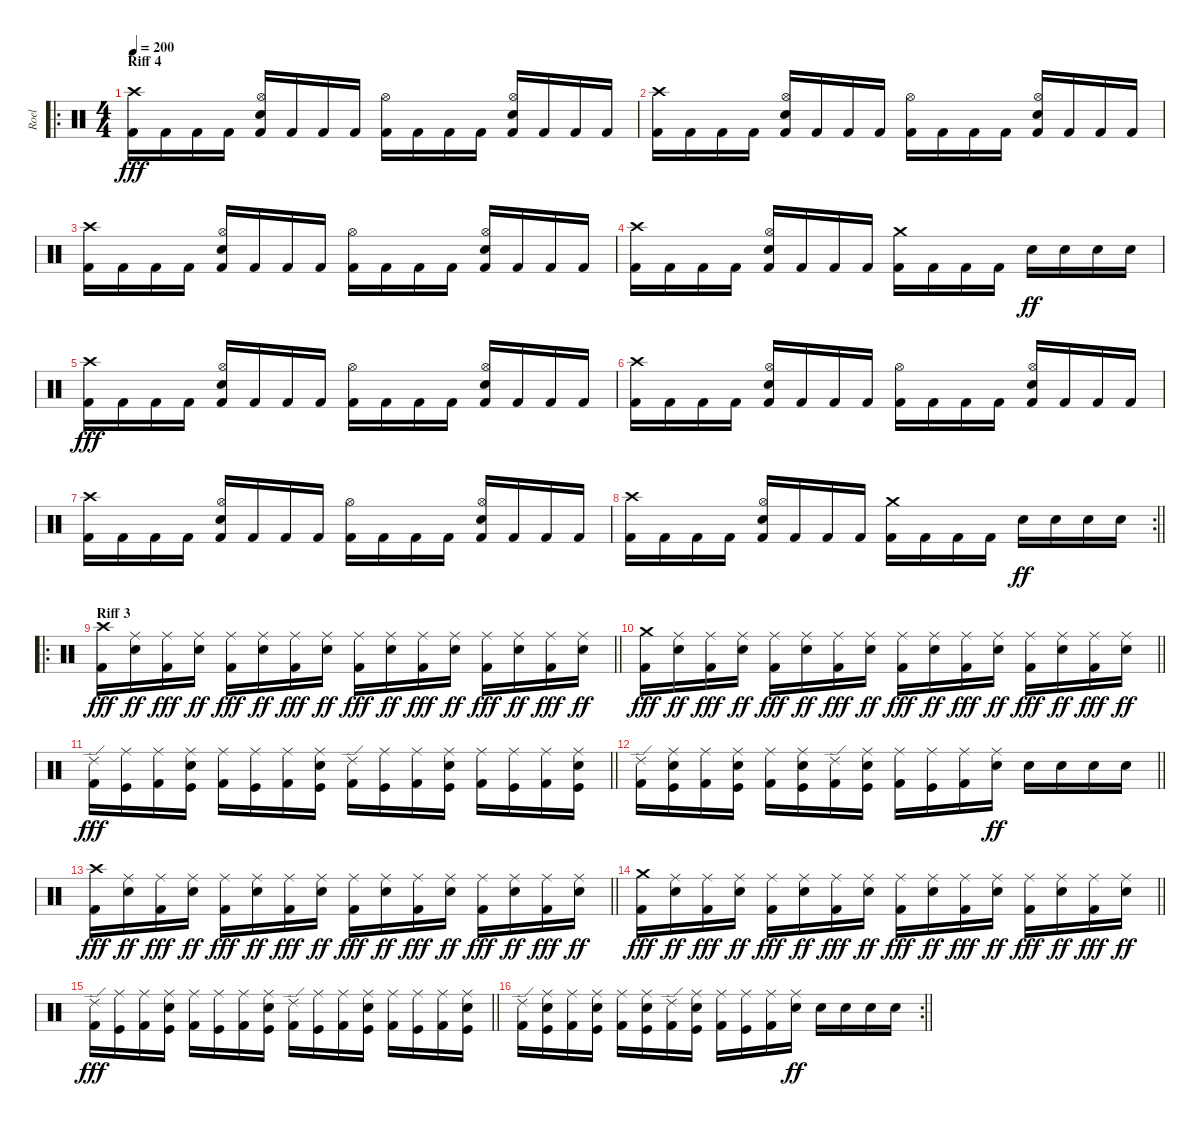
\track ("Roel" "Roel") {instrument percussion}
\staff {score}
\articulation defaults
\ro
\ts (4 4)
\section ("" "Riff 4")
\tempo 200
\clef neutral
\ks c
("Crash high (hit)" "Kick (hit) 2").16{dy fff} "Kick (hit) 2".16 "Kick (hit) 2".16 "Kick (hit) 2".16 ("Hi-Hat (open)" "Snare (hit) 2" "Kick (hit) 2").16 "Kick (hit) 2".16 "Kick (hit) 2".16 "Kick (hit) 2".16 ("Hi-Hat (open)" "Kick (hit) 2").16 "Kick (hit) 2".16 "Kick (hit) 2".16 "Kick (hit) 2".16 ("Hi-Hat (open)" "Snare (hit) 2" "Kick (hit) 2").16 "Kick (hit) 2".16 "Kick (hit) 2".16 "Kick (hit) 2".16 |
("Crash high (hit)" "Kick (hit) 2").16 "Kick (hit) 2".16 "Kick (hit) 2".16 "Kick (hit) 2".16 ("Hi-Hat (open)" "Snare (hit) 2" "Kick (hit) 2").16 "Kick (hit) 2".16 "Kick (hit) 2".16 "Kick (hit) 2".16 ("Hi-Hat (open)" "Kick (hit) 2").16 "Kick (hit) 2".16 "Kick (hit) 2".16 "Kick (hit) 2".16 ("Hi-Hat (open)" "Snare (hit) 2" "Kick (hit) 2").16 "Kick (hit) 2".16 "Kick (hit) 2".16 "Kick (hit) 2".16 |
("Crash high (hit)" "Kick (hit) 2").16 "Kick (hit) 2".16 "Kick (hit) 2".16 "Kick (hit) 2".16 ("Hi-Hat (open)" "Snare (hit) 2" "Kick (hit) 2").16 "Kick (hit) 2".16 "Kick (hit) 2".16 "Kick (hit) 2".16 ("Hi-Hat (open)" "Kick (hit) 2").16 "Kick (hit) 2".16 "Kick (hit) 2".16 "Kick (hit) 2".16 ("Hi-Hat (open)" "Snare (hit) 2" "Kick (hit) 2").16 "Kick (hit) 2".16 "Kick (hit) 2".16 "Kick (hit) 2".16 |
("Crash high (hit)" "Kick (hit) 2").16 "Kick (hit) 2".16 "Kick (hit) 2".16 "Kick (hit) 2".16 ("Hi-Hat (open)" "Snare (hit) 2" "Kick (hit) 2").16 "Kick (hit) 2".16 "Kick (hit) 2".16 "Kick (hit) 2".16 ("Crash medium (hit)" "Kick (hit) 2").16 "Kick (hit) 2".16 "Kick (hit) 2".16 "Kick (hit) 2".16 "Snare (hit) 2".16{dy ff} "Snare (hit) 2".16 "Snare (hit) 2".16 "Snare (hit) 2".16 |
("Crash high (hit)" "Kick (hit) 2").16{dy fff} "Kick (hit) 2".16 "Kick (hit) 2".16 "Kick (hit) 2".16 ("Hi-Hat (open)" "Snare (hit) 2" "Kick (hit) 2").16 "Kick (hit) 2".16 "Kick (hit) 2".16 "Kick (hit) 2".16 ("Hi-Hat (open)" "Kick (hit) 2").16 "Kick (hit) 2".16 "Kick (hit) 2".16 "Kick (hit) 2".16 ("Hi-Hat (open)" "Snare (hit) 2" "Kick (hit) 2").16 "Kick (hit) 2".16 "Kick (hit) 2".16 "Kick (hit) 2".16 |
("Crash high (hit)" "Kick (hit) 2").16 "Kick (hit) 2".16 "Kick (hit) 2".16 "Kick (hit) 2".16 ("Hi-Hat (open)" "Snare (hit) 2" "Kick (hit) 2").16 "Kick (hit) 2".16 "Kick (hit) 2".16 "Kick (hit) 2".16 ("Hi-Hat (open)" "Kick (hit) 2").16 "Kick (hit) 2".16 "Kick (hit) 2".16 "Kick (hit) 2".16 ("Hi-Hat (open)" "Snare (hit) 2" "Kick (hit) 2").16 "Kick (hit) 2".16 "Kick (hit) 2".16 "Kick (hit) 2".16 |
("Crash high (hit)" "Kick (hit) 2").16 "Kick (hit) 2".16 "Kick (hit) 2".16 "Kick (hit) 2".16 ("Hi-Hat (open)" "Snare (hit) 2" "Kick (hit) 2").16 "Kick (hit) 2".16 "Kick (hit) 2".16 "Kick (hit) 2".16 ("Hi-Hat (open)" "Kick (hit) 2").16 "Kick (hit) 2".16 "Kick (hit) 2".16 "Kick (hit) 2".16 ("Hi-Hat (open)" "Snare (hit) 2" "Kick (hit) 2").16 "Kick (hit) 2".16 "Kick (hit) 2".16 "Kick (hit) 2".16 |
\rc 2
\barLineRight lightlight
("Crash high (hit)" "Kick (hit) 2").16 "Kick (hit) 2".16 "Kick (hit) 2".16 "Kick (hit) 2".16 ("Hi-Hat (open)" "Snare (hit) 2" "Kick (hit) 2").16 "Kick (hit) 2".16 "Kick (hit) 2".16 "Kick (hit) 2".16 ("Crash medium (hit)" "Kick (hit) 2").16 "Kick (hit) 2".16 "Kick (hit) 2".16 "Kick (hit) 2".16 "Snare (hit) 2".16{dy ff} "Snare (hit) 2".16 "Snare (hit) 2".16 "Snare (hit) 2".16 |
\ro
\section ("" "Riff 3")
\barLineRight lightlight
("Crash high (hit)" "Kick (hit) 2").16{dy fff} ("Ride (middle)" "Snare (hit) 2").16{dy ff} ("Ride (middle)" "Kick (hit) 2").16{dy fff} ("Ride (middle)" "Snare (hit) 2").16{dy ff} ("Ride (middle)" "Kick (hit) 2").16{dy fff} ("Ride (middle)" "Snare (hit) 2").16{dy ff} ("Ride (middle)" "Kick (hit) 2").16{dy fff} ("Ride (middle)" "Snare (hit) 2").16{dy ff} ("Ride (middle)" "Kick (hit) 2").16{dy fff} ("Ride (middle)" "Snare (hit) 2").16{dy ff} ("Ride (middle)" "Kick (hit) 2").16{dy fff} ("Ride (middle)" "Snare (hit) 2").16{dy ff} ("Ride (middle)" "Kick (hit) 2").16{dy fff} ("Ride (middle)" "Snare (hit) 2").16{dy ff} ("Ride (middle)" "Kick (hit) 2").16{dy fff} ("Ride (middle)" "Snare (hit) 2").16{dy ff} |
\barLineRight lightlight
("Crash medium (hit)" "Kick (hit) 2").16{dy fff} ("Ride (middle)" "Snare (hit) 2").16{dy ff} ("Ride (middle)" "Kick (hit) 2").16{dy fff} ("Ride (middle)" "Snare (hit) 2").16{dy ff} ("Ride (middle)" "Kick (hit) 2").16{dy fff} ("Ride (middle)" "Snare (hit) 2").16{dy ff} ("Ride (middle)" "Kick (hit) 2").16{dy fff} ("Ride (middle)" "Snare (hit) 2").16{dy ff} ("Ride (middle)" "Kick (hit) 2").16{dy fff} ("Ride (middle)" "Snare (hit) 2").16{dy ff} ("Ride (middle)" "Kick (hit) 2").16{dy fff} ("Ride (middle)" "Snare (hit) 2").16{dy ff} ("Ride (middle)" "Kick (hit) 2").16{dy fff} ("Ride (middle)" "Snare (hit) 2").16{dy ff} ("Ride (middle)" "Kick (hit) 2").16{dy fff} ("Ride (middle)" "Snare (hit) 2").16{dy ff} |
\barLineRight lightlight
("Ride (edge) 2" "Kick (hit) 2").16{dy fff} ("Ride (middle)" "Kick (hit)").16 ("Ride (middle)" "Kick (hit) 2").16 ("Ride (middle)" "Snare (hit) 2" "Kick (hit)").16 ("Ride (middle)" "Kick (hit) 2").16 ("Ride (middle)" "Kick (hit)").16 ("Ride (middle)" "Kick (hit) 2").16 ("Ride (middle)" "Snare (hit) 2" "Kick (hit)").16 ("Ride (edge) 2" "Kick (hit) 2").16 ("Ride (middle)" "Kick (hit)").16 ("Ride (middle)" "Kick (hit) 2").16 ("Ride (middle)" "Snare (hit) 2" "Kick (hit)").16 ("Ride (middle)" "Kick (hit) 2").16 ("Ride (middle)" "Kick (hit)").16 ("Ride (middle)" "Kick (hit) 2").16 ("Ride (middle)" "Snare (hit) 2" "Kick (hit)").16 |
\barLineRight lightlight
("Ride (edge) 2" "Kick (hit) 2").16 ("Ride (middle)" "Snare (hit) 2" "Kick (hit)").16 ("Ride (middle)" "Kick (hit) 2").16 ("Ride (middle)" "Snare (hit) 2" "Kick (hit)").16 ("Ride (middle)" "Kick (hit) 2").16 ("Ride (middle)" "Snare (hit) 2" "Kick (hit)").16 ("Ride (edge) 2" "Kick (hit) 2").16 ("Ride (middle)" "Snare (hit) 2" "Kick (hit)").16 ("Ride (middle)" "Kick (hit) 2").16 ("Ride (middle)" "Kick (hit)").16 ("Ride (middle)" "Kick (hit) 2").16 ("Ride (middle)" "Snare (hit) 2").16{dy ff} "Snare (hit) 2".16 "Snare (hit) 2".16 "Snare (hit) 2".16 "Snare (hit) 2".16 |
\barLineRight lightlight
("Crash high (hit)" "Kick (hit) 2").16{dy fff} ("Ride (middle)" "Snare (hit) 2").16{dy ff} ("Ride (middle)" "Kick (hit) 2").16{dy fff} ("Ride (middle)" "Snare (hit) 2").16{dy ff} ("Ride (middle)" "Kick (hit) 2").16{dy fff} ("Ride (middle)" "Snare (hit) 2").16{dy ff} ("Ride (middle)" "Kick (hit) 2").16{dy fff} ("Ride (middle)" "Snare (hit) 2").16{dy ff} ("Ride (middle)" "Kick (hit) 2").16{dy fff} ("Ride (middle)" "Snare (hit) 2").16{dy ff} ("Ride (middle)" "Kick (hit) 2").16{dy fff} ("Ride (middle)" "Snare (hit) 2").16{dy ff} ("Ride (middle)" "Kick (hit) 2").16{dy fff} ("Ride (middle)" "Snare (hit) 2").16{dy ff} ("Ride (middle)" "Kick (hit) 2").16{dy fff} ("Ride (middle)" "Snare (hit) 2").16{dy ff} |
\barLineRight lightlight
("Crash medium (hit)" "Kick (hit) 2").16{dy fff} ("Ride (middle)" "Snare (hit) 2").16{dy ff} ("Ride (middle)" "Kick (hit) 2").16{dy fff} ("Ride (middle)" "Snare (hit) 2").16{dy ff} ("Ride (middle)" "Kick (hit) 2").16{dy fff} ("Ride (middle)" "Snare (hit) 2").16{dy ff} ("Ride (middle)" "Kick (hit) 2").16{dy fff} ("Ride (middle)" "Snare (hit) 2").16{dy ff} ("Ride (middle)" "Kick (hit) 2").16{dy fff} ("Ride (middle)" "Snare (hit) 2").16{dy ff} ("Ride (middle)" "Kick (hit) 2").16{dy fff} ("Ride (middle)" "Snare (hit) 2").16{dy ff} ("Ride (middle)" "Kick (hit) 2").16{dy fff} ("Ride (middle)" "Snare (hit) 2").16{dy ff} ("Ride (middle)" "Kick (hit) 2").16{dy fff} ("Ride (middle)" "Snare (hit) 2").16{dy ff} |
\barLineRight lightlight
("Ride (edge) 2" "Kick (hit) 2").16{dy fff} ("Ride (middle)" "Kick (hit)").16 ("Ride (middle)" "Kick (hit) 2").16 ("Ride (middle)" "Snare (hit) 2" "Kick (hit)").16 ("Ride (middle)" "Kick (hit) 2").16 ("Ride (middle)" "Kick (hit)").16 ("Ride (middle)" "Kick (hit) 2").16 ("Ride (middle)" "Snare (hit) 2" "Kick (hit)").16 ("Ride (edge) 2" "Kick (hit) 2").16 ("Ride (middle)" "Kick (hit)").16 ("Ride (middle)" "Kick (hit) 2").16 ("Ride (middle)" "Snare (hit) 2" "Kick (hit)").16 ("Ride (middle)" "Kick (hit) 2").16 ("Ride (middle)" "Kick (hit)").16 ("Ride (middle)" "Kick (hit) 2").16 ("Ride (middle)" "Snare (hit) 2" "Kick (hit)").16 |
\rc 2
\barLineRight lightlight
("Ride (edge) 2" "Kick (hit) 2").16 ("Ride (middle)" "Snare (hit) 2" "Kick (hit)").16 ("Ride (middle)" "Kick (hit) 2").16 ("Ride (middle)" "Snare (hit) 2" "Kick (hit)").16 ("Ride (middle)" "Kick (hit) 2").16 ("Ride (middle)" "Snare (hit) 2" "Kick (hit)").16 ("Ride (edge) 2" "Kick (hit) 2").16 ("Ride (middle)" "Snare (hit) 2" "Kick (hit)").16 ("Ride (middle)" "Kick (hit) 2").16 ("Ride (middle)" "Kick (hit)").16 ("Ride (middle)" "Kick (hit) 2").16 ("Ride (middle)" "Snare (hit) 2").16{dy ff} "Snare (hit) 2".16 "Snare (hit) 2".16 "Snare (hit) 2".16 "Snare (hit) 2".16
